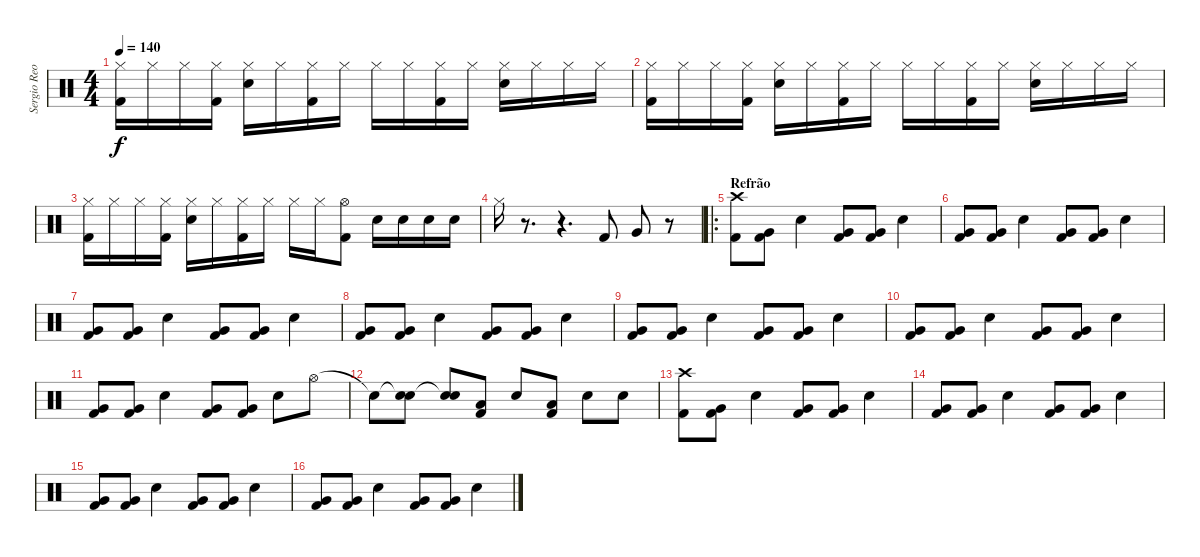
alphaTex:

\track ("Sergio Reoli" "Sergio Reo") {instrument percussion}
\staff {score}
\articulation defaults
\ts (4 4)
\tempo 140
\clef neutral
\ks c
("Hi-Hat (closed)" "Kick (hit) 2").16{dy f} "Hi-Hat (closed)".16 "Hi-Hat (closed)".16 ("Hi-Hat (closed)" "Kick (hit) 2").16 ("Hi-Hat (closed)" "Electric Snare (hit)").16 "Hi-Hat (closed)".16 ("Hi-Hat (closed)" "Kick (hit) 2").16 "Hi-Hat (closed)".16 "Hi-Hat (closed)".16 "Hi-Hat (closed)".16 ("Hi-Hat (closed)" "Kick (hit) 2").16 "Hi-Hat (closed)".16 ("Hi-Hat (closed)" "Electric Snare (hit)").16 "Hi-Hat (closed)".16 "Hi-Hat (closed)".16 "Hi-Hat (closed)".16 |
("Hi-Hat (closed)" "Kick (hit) 2").16 "Hi-Hat (closed)".16 "Hi-Hat (closed)".16 ("Hi-Hat (closed)" "Kick (hit) 2").16 ("Hi-Hat (closed)" "Electric Snare (hit)").16 "Hi-Hat (closed)".16 ("Hi-Hat (closed)" "Kick (hit) 2").16 "Hi-Hat (closed)".16 "Hi-Hat (closed)".16 "Hi-Hat (closed)".16 ("Hi-Hat (closed)" "Kick (hit) 2").16 "Hi-Hat (closed)".16 ("Hi-Hat (closed)" "Electric Snare (hit)").16 "Hi-Hat (closed)".16 "Hi-Hat (closed)".16 "Hi-Hat (closed)".16 |
("Hi-Hat (closed)" "Kick (hit) 2").16 "Hi-Hat (closed)".16 "Hi-Hat (closed)".16 ("Hi-Hat (closed)" "Kick (hit) 2").16 ("Hi-Hat (closed)" "Electric Snare (hit)").16 "Hi-Hat (closed)".16 ("Hi-Hat (closed)" "Kick (hit) 2").16 "Hi-Hat (closed)".16 "Hi-Hat (closed)".16 "Hi-Hat (closed)".16 ("Hi-Hat (open)" "Kick (hit) 2").8 "Electric Snare (hit)".16 "Electric Snare (hit)".16 "Electric Snare (hit)".16 "Electric Snare (hit)".16 |
"Hi-Hat (closed)".16 r.8{d} r.4{d} "Kick (hit) 2".8 "Very Low Tom (hit)".8 r.8 |
\ro
\section ("" "Refrão")
("Crash high (hit)" "Kick (hit) 2").8 ("Very Low Tom (hit)" "Kick (hit) 2").8 "Electric Snare (hit)".4 ("Very Low Tom (hit)" "Kick (hit) 2").8 ("Very Low Tom (hit)" "Kick (hit) 2").8 "Electric Snare (hit)".4 |
("Very Low Tom (hit)" "Kick (hit) 2").8 ("Very Low Tom (hit)" "Kick (hit) 2").8 "Electric Snare (hit)".4 ("Very Low Tom (hit)" "Kick (hit) 2").8 ("Very Low Tom (hit)" "Kick (hit) 2").8 "Electric Snare (hit)".4 |
("Very Low Tom (hit)" "Kick (hit) 2").8 ("Very Low Tom (hit)" "Kick (hit) 2").8 "Electric Snare (hit)".4 ("Very Low Tom (hit)" "Kick (hit) 2").8 ("Very Low Tom (hit)" "Kick (hit) 2").8 "Electric Snare (hit)".4 |
("Very Low Tom (hit)" "Kick (hit) 2").8 ("Very Low Tom (hit)" "Kick (hit) 2").8 "Electric Snare (hit)".4 ("Very Low Tom (hit)" "Kick (hit) 2").8 ("Very Low Tom (hit)" "Kick (hit) 2").8 "Electric Snare (hit)".4 |
("Very Low Tom (hit)" "Kick (hit) 2").8 ("Very Low Tom (hit)" "Kick (hit) 2").8 "Electric Snare (hit)".4 ("Very Low Tom (hit)" "Kick (hit) 2").8 ("Very Low Tom (hit)" "Kick (hit) 2").8 "Electric Snare (hit)".4 |
("Very Low Tom (hit)" "Kick (hit) 2").8 ("Very Low Tom (hit)" "Kick (hit) 2").8 "Electric Snare (hit)".4 ("Very Low Tom (hit)" "Kick (hit) 2").8 ("Very Low Tom (hit)" "Kick (hit) 2").8 "Electric Snare (hit)".4 |
("Very Low Tom (hit)" "Kick (hit) 2").8 ("Very Low Tom (hit)" "Kick (hit) 2").8 "Electric Snare (hit)".4 ("Very Low Tom (hit)" "Kick (hit) 2").8 ("Very Low Tom (hit)" "Kick (hit) 2").8 "Electric Snare (hit)".8 "Hi-Hat (open)".8 |
"Snare (hit)"{t}.8 ("Snare (hit)"{t} "Electric Snare (hit)").8 ("Snare (hit)"{t} "Electric Snare (hit)").8 ("Low Tom (hit)" "Kick (hit) 2").8 "Electric Snare (hit)".8 ("Low Tom (hit)" "Kick (hit) 2").8 "Electric Snare (hit)".8 "Electric Snare (hit)".8 |
("Crash high (hit)" "Kick (hit) 2").8 ("Very Low Tom (hit)" "Kick (hit) 2").8 "Electric Snare (hit)".4 ("Very Low Tom (hit)" "Kick (hit) 2").8 ("Very Low Tom (hit)" "Kick (hit) 2").8 "Electric Snare (hit)".4 |
("Very Low Tom (hit)" "Kick (hit) 2").8 ("Very Low Tom (hit)" "Kick (hit) 2").8 "Electric Snare (hit)".4 ("Very Low Tom (hit)" "Kick (hit) 2").8 ("Very Low Tom (hit)" "Kick (hit) 2").8 "Electric Snare (hit)".4 |
("Very Low Tom (hit)" "Kick (hit) 2").8 ("Very Low Tom (hit)" "Kick (hit) 2").8 "Electric Snare (hit)".4 ("Very Low Tom (hit)" "Kick (hit) 2").8 ("Very Low Tom (hit)" "Kick (hit) 2").8 "Electric Snare (hit)".4 |
("Very Low Tom (hit)" "Kick (hit) 2").8 ("Very Low Tom (hit)" "Kick (hit) 2").8 "Electric Snare (hit)".4 ("Very Low Tom (hit)" "Kick (hit) 2").8 ("Very Low Tom (hit)" "Kick (hit) 2").8 "Electric Snare (hit)".4
